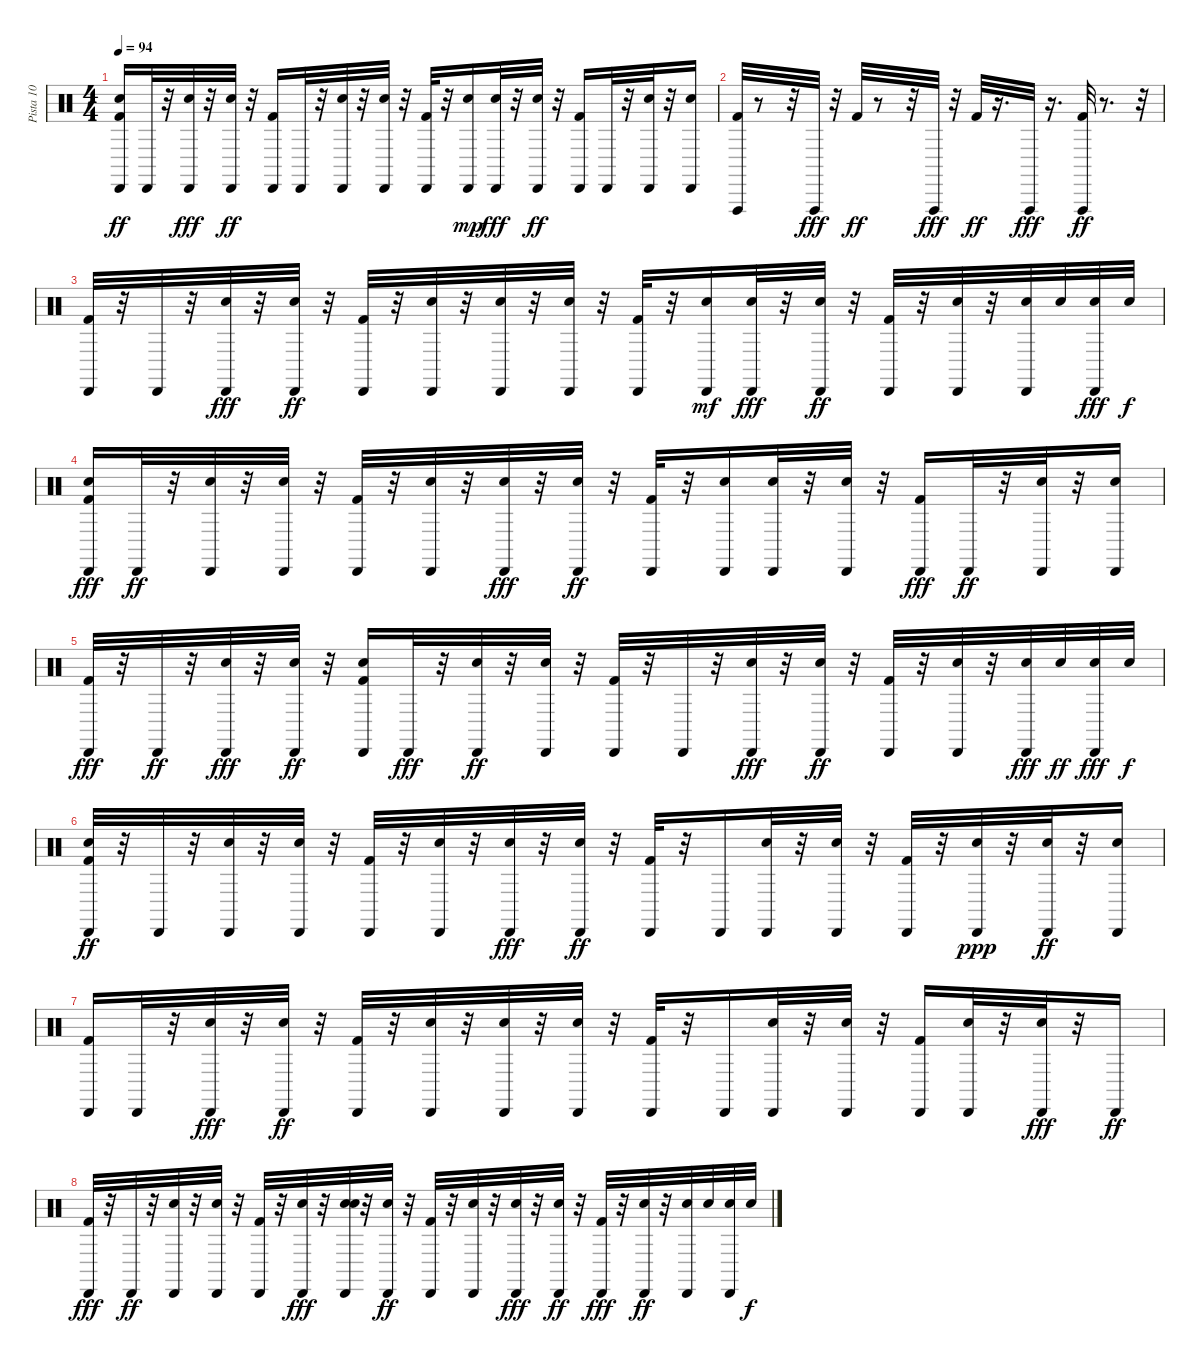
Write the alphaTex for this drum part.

\track ("Pista 10" "Pista 10") {instrument percussion}
\staff {score}
\articulation defaults
\ts (4 4)
\tempo 94
\clef neutral
\ks c
("Kick (hit) 2" "Snare (hit) 2" "Cabasa (hit)").16{dy ff} "Cabasa (hit)".32 r.32 ("Cabasa (hit)" "Snare (hit) 2").32{dy fff} r.32 ("Cabasa (hit)" "Electric Snare (hit)").32{dy ff} r.32 ("Cabasa (hit)" "Kick (hit) 2").16 "Cabasa (hit)".32 r.32 ("Snare (hit) 2" "Cabasa (hit)").32 r.32 ("Electric Snare (hit)" "Cabasa (hit)").32 r.32 ("Kick (hit) 2" "Cabasa (hit)").32 r.32 ("Cabasa (hit)" "Electric Snare (hit)").16{dy mp} ("Cabasa (hit)" "Snare (hit) 2").32{dy fff} r.32 ("Cabasa (hit)" "Electric Snare (hit)").32{dy ff} r.32 ("Kick (hit) 2" "Cabasa (hit)").16 "Cabasa (hit)".32 r.32 ("Snare (hit) 2" "Cabasa (hit)").32 r.32 ("Cabasa (hit)" "Electric Snare (hit)").16 |
("Vibraslap (hit)" "Kick (hit) 2").32 r.8 r.32 "Vibraslap (hit)".32{dy fff} r.32 "Kick (hit) 2".32{dy ff} r.8 r.32 "Vibraslap (hit)".32{dy fff} r.32 "Kick (hit) 2".32{dy ff} r.16{d} "Vibraslap (hit)".32{dy fff} r.16{d} ("Vibraslap (hit)" "Kick (hit) 2").32{dy ff} r.8{d} r.32 |
("Kick (hit) 2" "Cabasa (hit)").32 r.32 "Cabasa (hit)".32 r.32 ("Cabasa (hit)" "Snare (hit) 2").32{dy fff} r.32 ("Cabasa (hit)" "Electric Snare (hit)").32{dy ff} r.32 ("Cabasa (hit)" "Kick (hit) 2").32 r.32 ("Electric Snare (hit)" "Cabasa (hit)").32 r.32 ("Snare (hit) 2" "Cabasa (hit)").32 r.32 ("Electric Snare (hit)" "Cabasa (hit)").32 r.32 ("Cabasa (hit)" "Kick (hit) 2").32 r.32 ("Cabasa (hit)" "Electric Snare (hit)").16{dy mf} ("Cabasa (hit)" "Snare (hit) 2").32{dy fff} r.32 ("Electric Snare (hit)" "Cabasa (hit)").32{dy ff} r.32 ("Kick (hit) 2" "Cabasa (hit)").32 r.32 ("Electric Snare (hit)" "Cabasa (hit)").32 r.32 ("Snare (hit) 2" "Cabasa (hit)").32 "Electric Snare (hit)".32 ("Cabasa (hit)" "Snare (hit) 2").32{dy fff} "Electric Snare (hit)".32{dy f} |
("Cabasa (hit)" "Snare (hit) 2" "Kick (hit) 2").16{dy fff} "Cabasa (hit)".32{dy ff} r.32 ("Snare (hit) 2" "Cabasa (hit)").32 r.32 ("Electric Snare (hit)" "Cabasa (hit)").32 r.32 ("Kick (hit) 2" "Cabasa (hit)").32 r.32 ("Cabasa (hit)" "Electric Snare (hit)").32 r.32 ("Cabasa (hit)" "Snare (hit) 2").32{dy fff} r.32 ("Cabasa (hit)" "Electric Snare (hit)").32{dy ff} r.32 ("Kick (hit) 2" "Cabasa (hit)").32 r.32 ("Electric Snare (hit)" "Cabasa (hit)").16 ("Snare (hit) 2" "Cabasa (hit)").32 r.32 ("Cabasa (hit)" "Electric Snare (hit)").32 r.32 ("Cabasa (hit)" "Kick (hit) 2").16{dy fff} "Cabasa (hit)".32{dy ff} r.32 ("Snare (hit) 2" "Cabasa (hit)").32 r.32 ("Electric Snare (hit)" "Cabasa (hit)").16 |
("Kick (hit) 2" "Cabasa (hit)").32{dy fff} r.32 "Cabasa (hit)".32{dy ff} r.32 ("Cabasa (hit)" "Snare (hit) 2").32{dy fff} r.32 ("Cabasa (hit)" "Electric Snare (hit)").32{dy ff} r.32 ("Cabasa (hit)" "Snare (hit) 2" "Kick (hit) 2").16 "Cabasa (hit)".32{dy fff} r.32 ("Snare (hit) 2" "Cabasa (hit)").32{dy ff} r.32 ("Electric Snare (hit)" "Cabasa (hit)").32 r.32 ("Cabasa (hit)" "Kick (hit) 2").32 r.32 "Cabasa (hit)".32 r.32 ("Cabasa (hit)" "Snare (hit) 2").32{dy fff} r.32 ("Electric Snare (hit)" "Cabasa (hit)").32{dy ff} r.32 ("Kick (hit) 2" "Cabasa (hit)").32 r.32 ("Electric Snare (hit)" "Cabasa (hit)").32 r.32 ("Cabasa (hit)" "Snare (hit) 2").32{dy fff} "Electric Snare (hit)".32{dy ff} ("Cabasa (hit)" "Snare (hit) 2").32{dy fff} "Electric Snare (hit)".32{dy f} |
("Cabasa (hit)" "Snare (hit) 2" "Kick (hit) 2").32{dy ff} r.32 "Cabasa (hit)".32 r.32 ("Snare (hit) 2" "Cabasa (hit)").32 r.32 ("Electric Snare (hit)" "Cabasa (hit)").32 r.32 ("Cabasa (hit)" "Kick (hit) 2").32 r.32 ("Cabasa (hit)" "Electric Snare (hit)").32 r.32 ("Cabasa (hit)" "Snare (hit) 2").32{dy fff} r.32 ("Cabasa (hit)" "Electric Snare (hit)").32{dy ff} r.32 ("Kick (hit) 2" "Cabasa (hit)").32 r.32 "Cabasa (hit)".16 ("Snare (hit) 2" "Cabasa (hit)").32 r.32 ("Cabasa (hit)" "Electric Snare (hit)").32 r.32 ("Cabasa (hit)" "Kick (hit) 2").32 r.32 ("Cabasa (hit)" "Electric Snare (hit)").32{dy ppp} r.32 ("Snare (hit) 2" "Cabasa (hit)").32{dy ff} r.32 ("Electric Snare (hit)" "Cabasa (hit)").16 |
("Kick (hit) 2" "Cabasa (hit)").16 "Cabasa (hit)".32 r.32 ("Cabasa (hit)" "Snare (hit) 2").32{dy fff} r.32 ("Cabasa (hit)" "Electric Snare (hit)").32{dy ff} r.32 ("Kick (hit) 2" "Cabasa (hit)").32 r.32 ("Electric Snare (hit)" "Cabasa (hit)").32 r.32 ("Snare (hit) 2" "Cabasa (hit)").32 r.32 ("Cabasa (hit)" "Electric Snare (hit)").32 r.32 ("Cabasa (hit)" "Kick (hit) 2").32 r.32 "Cabasa (hit)".16 ("Snare (hit) 2" "Cabasa (hit)").32 r.32 ("Electric Snare (hit)" "Cabasa (hit)").32 r.32 ("Kick (hit) 2" "Cabasa (hit)").16 ("Electric Snare (hit)" "Cabasa (hit)").32 r.32 ("Cabasa (hit)" "Snare (hit) 2").32{dy fff} r.32 "Cabasa (hit)".16{dy ff} |
("Cabasa (hit)" "Kick (hit) 2").32{dy fff} r.32 "Cabasa (hit)".32{dy ff} r.32 ("Snare (hit) 2" "Cabasa (hit)").32 r.32 ("Electric Snare (hit)" "Cabasa (hit)").32 r.32 ("Cabasa (hit)" "Kick (hit) 2").32 r.32 ("Cabasa (hit)" "Electric Snare (hit)").32{dy fff} r.32 ("Cabasa (hit)" "Electric Snare (hit)" "Snare (hit) 2").32 r.32 ("Electric Snare (hit)" "Cabasa (hit)").32{dy ff} r.32 ("Kick (hit) 2" "Cabasa (hit)").32 r.32 ("Electric Snare (hit)" "Cabasa (hit)").32 r.32 ("Cabasa (hit)" "Snare (hit) 2").32{dy fff} r.32 ("Cabasa (hit)" "Electric Snare (hit)").32{dy ff} r.32 ("Cabasa (hit)" "Kick (hit) 2").32{dy fff} r.32 ("Electric Snare (hit)" "Cabasa (hit)").32{dy ff} r.32 ("Snare (hit) 2" "Cabasa (hit)").32 "Electric Snare (hit)".32 ("Snare (hit) 2" "Cabasa (hit)").32 "Electric Snare (hit)".32{dy f}
